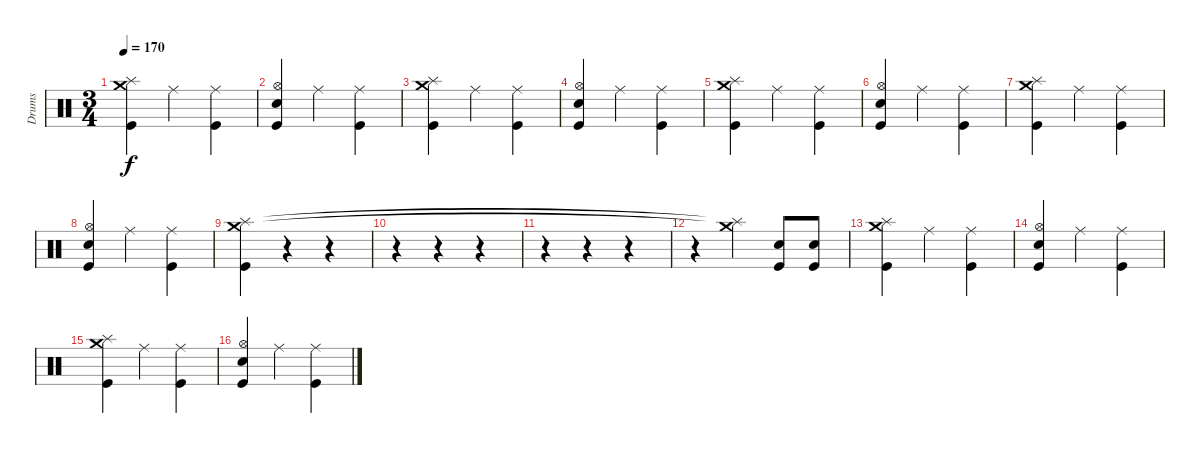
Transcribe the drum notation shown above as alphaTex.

\track ("Drums" "Drums") {instrument percussion}
\staff {score}
\articulation defaults
\ts (3 4)
\tempo 170
\clef neutral
\ks c
("Splash (hit)" "Crash medium (hit)" "Kick (hit)").4{dy f} "Ride (middle)".4 ("Ride (middle)" "Kick (hit)").4 |
("Hi-Hat (open)" "Electric Snare (hit)" "Kick (hit)").4 "Ride (middle)".4 ("Ride (middle)" "Kick (hit)").4 |
("Splash (hit)" "Crash medium (hit)" "Kick (hit)").4 "Ride (middle)".4 ("Ride (middle)" "Kick (hit)").4 |
("Hi-Hat (open)" "Electric Snare (hit)" "Kick (hit)").4 "Ride (middle)".4 ("Ride (middle)" "Kick (hit)").4 |
("Splash (hit)" "Crash medium (hit)" "Kick (hit)").4 "Ride (middle)".4 ("Ride (middle)" "Kick (hit)").4 |
("Hi-Hat (open)" "Electric Snare (hit)" "Kick (hit)").4 "Ride (middle)".4 ("Ride (middle)" "Kick (hit)").4 |
("Splash (hit)" "Crash medium (hit)" "Kick (hit)").4 "Ride (middle)".4 ("Ride (middle)" "Kick (hit)").4 |
("Hi-Hat (open)" "Electric Snare (hit)" "Kick (hit)").4 "Ride (middle)".4 ("Ride (middle)" "Kick (hit)").4 |
("Splash (hit)" "Crash medium (hit)" "Kick (hit)").4 r.4 r.4 |
r.4 r.4 r.4 |
r.4 r.4 r.4 |
r.4 ("Splash (hit)"{t} "Crash medium (hit)"{t}).4 ("Electric Snare (hit)" "Kick (hit)").8 ("Electric Snare (hit)" "Kick (hit)").8 |
("Splash (hit)" "Crash medium (hit)" "Kick (hit)").4 "Ride (middle)".4 ("Ride (middle)" "Kick (hit)").4 |
("Hi-Hat (open)" "Electric Snare (hit)" "Kick (hit)").4 "Ride (middle)".4 ("Ride (middle)" "Kick (hit)").4 |
("Splash (hit)" "Crash medium (hit)" "Kick (hit)").4 "Ride (middle)".4 ("Ride (middle)" "Kick (hit)").4 |
("Hi-Hat (open)" "Electric Snare (hit)" "Kick (hit)").4 "Ride (middle)".4 ("Ride (middle)" "Kick (hit)").4
